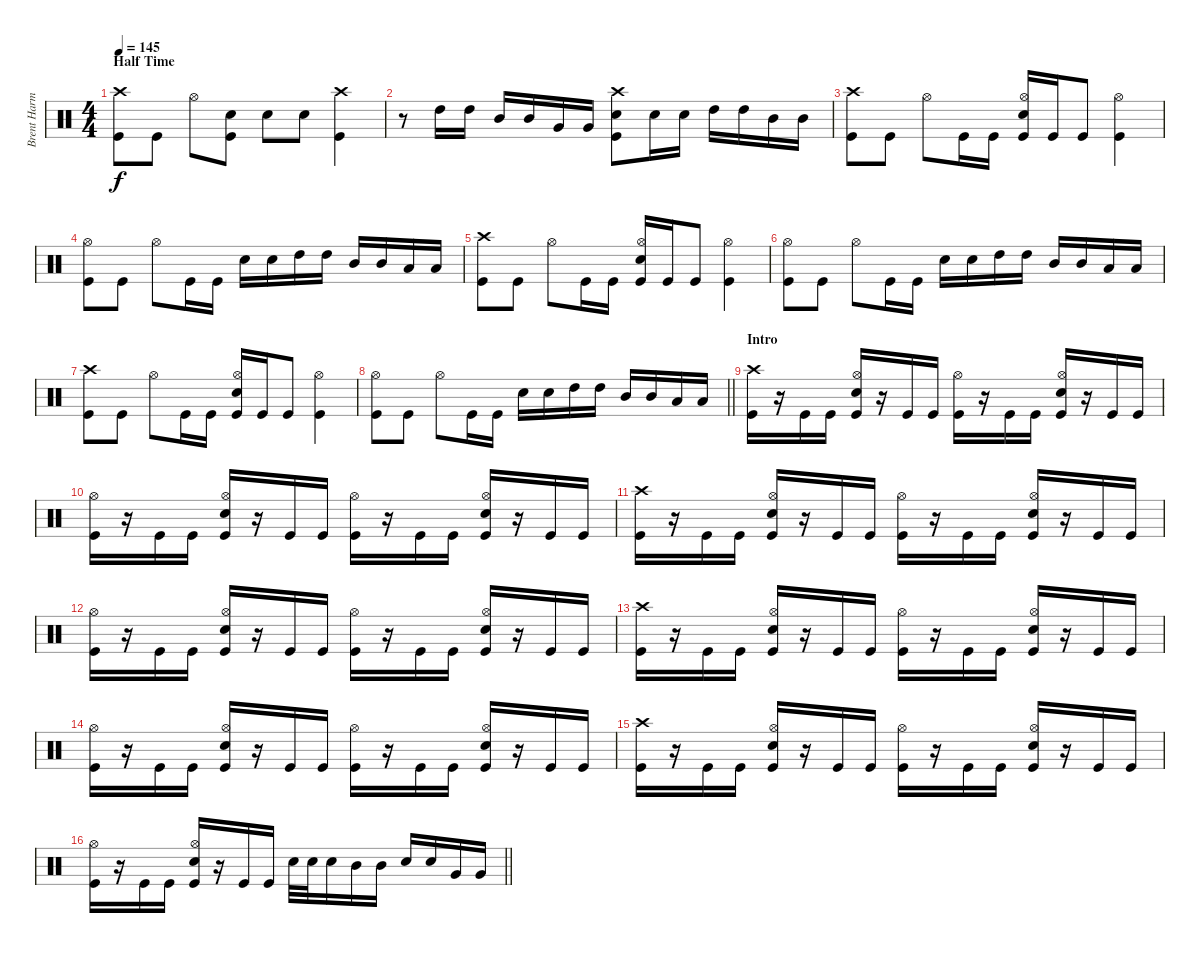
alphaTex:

\track ("Brent Harman" "Brent Harm") {instrument percussion}
\staff {score}
\articulation defaults
\ts (4 4)
\section ("" "Half Time")
\tempo 145
\clef neutral
\ks c
("Crash high (hit)" "Kick (hit)").8{dy f} "Kick (hit)".8 "Hi-Hat (open)".8 ("Snare (hit) 2" "Kick (hit)").8 "Snare (hit) 2".8 "Snare (hit) 2".8 ("Crash high (hit)" "Kick (hit)").4 |
r.8 "High Tom (hit)".16 "High Tom (hit)".16 "Mid Tom (hit)".16 "Mid Tom (hit)".16 "Very Low Tom (hit)".16 "Very Low Tom (hit)".16 ("Crash high (hit)" "Snare (hit) 2" "Kick (hit)").8 "Snare (hit) 2".16 "Snare (hit) 2".16 "High Tom (hit)".16 "High Tom (hit)".16 "Mid Tom (hit)".16 "Mid Tom (hit)".16 |
("Crash high (hit)" "Kick (hit)").8 "Kick (hit)".8 "Hi-Hat (open)".8 "Kick (hit)".16 "Kick (hit)".16 ("Hi-Hat (open)" "Snare (hit) 2" "Kick (hit)").16 "Kick (hit)".16 "Kick (hit)".8 ("Hi-Hat (open)" "Kick (hit)").4 |
("Hi-Hat (open)" "Kick (hit)").8 "Kick (hit)".8 "Hi-Hat (open)".8 "Kick (hit)".16 "Kick (hit)".16 "Snare (hit) 2".16 "Snare (hit) 2".16 "High Tom (hit)".16 "High Tom (hit)".16 "Mid Tom (hit)".16 "Mid Tom (hit)".16 "Low Tom (hit)".16 "Low Tom (hit)".16 |
("Crash high (hit)" "Kick (hit)").8 "Kick (hit)".8 "Hi-Hat (open)".8 "Kick (hit)".16 "Kick (hit)".16 ("Hi-Hat (open)" "Snare (hit) 2" "Kick (hit)").16 "Kick (hit)".16 "Kick (hit)".8 ("Hi-Hat (open)" "Kick (hit)").4 |
("Hi-Hat (open)" "Kick (hit)").8 "Kick (hit)".8 "Hi-Hat (open)".8 "Kick (hit)".16 "Kick (hit)".16 "Snare (hit) 2".16 "Snare (hit) 2".16 "High Tom (hit)".16 "High Tom (hit)".16 "Mid Tom (hit)".16 "Mid Tom (hit)".16 "Low Tom (hit)".16 "Low Tom (hit)".16 |
("Crash high (hit)" "Kick (hit)").8 "Kick (hit)".8 "Hi-Hat (open)".8 "Kick (hit)".16 "Kick (hit)".16 ("Hi-Hat (open)" "Snare (hit) 2" "Kick (hit)").16 "Kick (hit)".16 "Kick (hit)".8 ("Hi-Hat (open)" "Kick (hit)").4 |
\barLineRight lightlight
("Hi-Hat (open)" "Kick (hit)").8 "Kick (hit)".8 "Hi-Hat (open)".8 "Kick (hit)".16 "Kick (hit)".16 "Snare (hit) 2".16 "Snare (hit) 2".16 "High Tom (hit)".16 "High Tom (hit)".16 "Mid Tom (hit)".16 "Mid Tom (hit)".16 "Low Tom (hit)".16 "Low Tom (hit)".16 |
\section ("" "Intro")
("Crash high (hit)" "Kick (hit)").16 r.16 "Kick (hit)".16 "Kick (hit)".16 ("Hi-Hat (open)" "Snare (hit) 2" "Kick (hit)").16 r.16 "Kick (hit)".16 "Kick (hit)".16 ("Hi-Hat (open)" "Kick (hit)").16 r.16 "Kick (hit)".16 "Kick (hit)".16 ("Hi-Hat (open)" "Snare (hit) 2" "Kick (hit)").16 r.16 "Kick (hit)".16 "Kick (hit)".16 |
("Hi-Hat (open)" "Kick (hit)").16 r.16 "Kick (hit)".16 "Kick (hit)".16 ("Hi-Hat (open)" "Snare (hit) 2" "Kick (hit)").16 r.16 "Kick (hit)".16 "Kick (hit)".16 ("Hi-Hat (open)" "Kick (hit)").16 r.16 "Kick (hit)".16 "Kick (hit)".16 ("Hi-Hat (open)" "Snare (hit) 2" "Kick (hit)").16 r.16 "Kick (hit)".16 "Kick (hit)".16 |
("Crash high (hit)" "Kick (hit)").16 r.16 "Kick (hit)".16 "Kick (hit)".16 ("Hi-Hat (open)" "Snare (hit) 2" "Kick (hit)").16 r.16 "Kick (hit)".16 "Kick (hit)".16 ("Hi-Hat (open)" "Kick (hit)").16 r.16 "Kick (hit)".16 "Kick (hit)".16 ("Hi-Hat (open)" "Snare (hit) 2" "Kick (hit)").16 r.16 "Kick (hit)".16 "Kick (hit)".16 |
("Hi-Hat (open)" "Kick (hit)").16 r.16 "Kick (hit)".16 "Kick (hit)".16 ("Hi-Hat (open)" "Snare (hit) 2" "Kick (hit)").16 r.16 "Kick (hit)".16 "Kick (hit)".16 ("Hi-Hat (open)" "Kick (hit)").16 r.16 "Kick (hit)".16 "Kick (hit)".16 ("Hi-Hat (open)" "Snare (hit) 2" "Kick (hit)").16 r.16 "Kick (hit)".16 "Kick (hit)".16 |
("Crash high (hit)" "Kick (hit)").16 r.16 "Kick (hit)".16 "Kick (hit)".16 ("Hi-Hat (open)" "Snare (hit) 2" "Kick (hit)").16 r.16 "Kick (hit)".16 "Kick (hit)".16 ("Hi-Hat (open)" "Kick (hit)").16 r.16 "Kick (hit)".16 "Kick (hit)".16 ("Hi-Hat (open)" "Snare (hit) 2" "Kick (hit)").16 r.16 "Kick (hit)".16 "Kick (hit)".16 |
("Hi-Hat (open)" "Kick (hit)").16 r.16 "Kick (hit)".16 "Kick (hit)".16 ("Hi-Hat (open)" "Snare (hit) 2" "Kick (hit)").16 r.16 "Kick (hit)".16 "Kick (hit)".16 ("Hi-Hat (open)" "Kick (hit)").16 r.16 "Kick (hit)".16 "Kick (hit)".16 ("Hi-Hat (open)" "Snare (hit) 2" "Kick (hit)").16 r.16 "Kick (hit)".16 "Kick (hit)".16 |
("Crash high (hit)" "Kick (hit)").16 r.16 "Kick (hit)".16 "Kick (hit)".16 ("Hi-Hat (open)" "Snare (hit) 2" "Kick (hit)").16 r.16 "Kick (hit)".16 "Kick (hit)".16 ("Hi-Hat (open)" "Kick (hit)").16 r.16 "Kick (hit)".16 "Kick (hit)".16 ("Hi-Hat (open)" "Snare (hit) 2" "Kick (hit)").16 r.16 "Kick (hit)".16 "Kick (hit)".16 |
\barLineRight lightlight
("Hi-Hat (open)" "Kick (hit)").16 r.16 "Kick (hit)".16 "Kick (hit)".16 ("Hi-Hat (open)" "Snare (hit) 2" "Kick (hit)").16 r.16 "Kick (hit)".16 "Kick (hit)".16 "Snare (hit) 2".32 "Snare (hit) 2".32 "Snare (hit) 2".16 "Mid Tom (hit)".16 "Mid Tom (hit)".16 "Snare (hit) 2".16 "Snare (hit) 2".16 "Very Low Tom (hit)".16 "Very Low Tom (hit)".16
